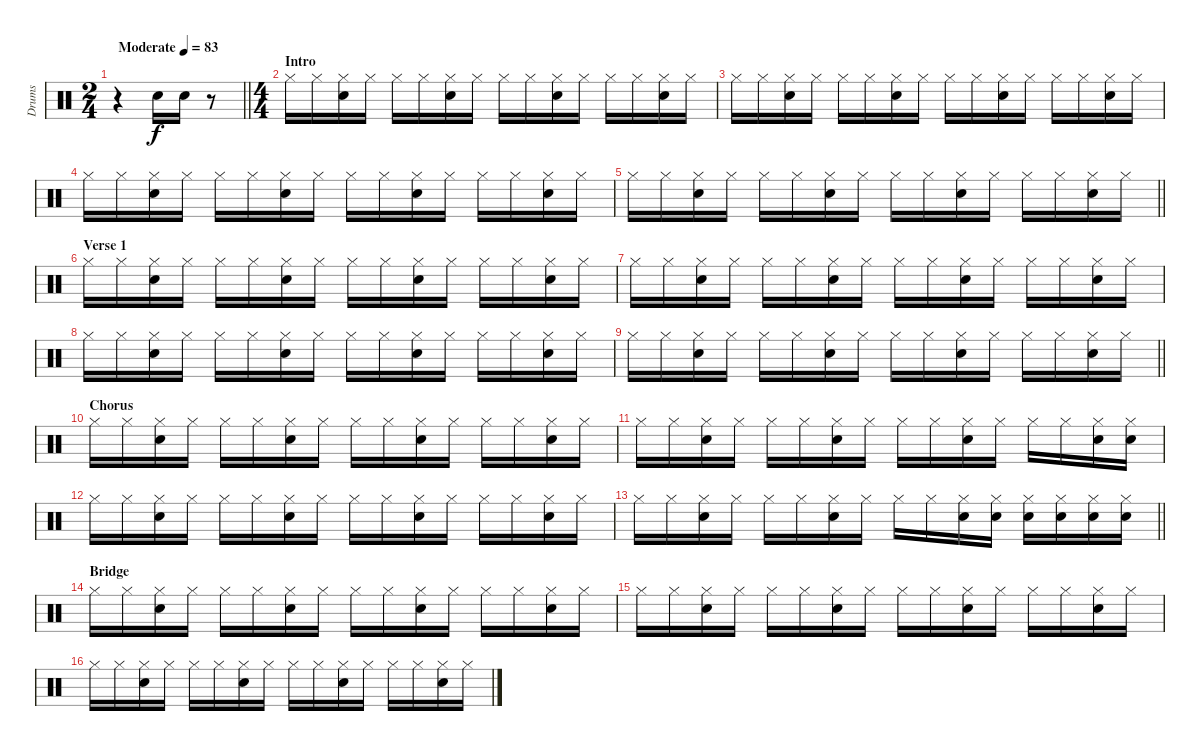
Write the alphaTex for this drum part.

\track ("Drums" "Drums") {instrument percussion}
\staff {score}
\articulation defaults
\ts (2 4)
\tempo (83 "Moderate")
\clef neutral
\barLineRight lightlight
\ks c
r.4{dy f} "Electric Snare (hit)".16 "Electric Snare (hit)".16 r.8 |
\ts (4 4)
\section ("" "Intro")
"Hi-Hat (closed)".16 "Hi-Hat (closed)".16 ("Hi-Hat (closed)" "Electric Snare (hit)").16 "Hi-Hat (closed)".16 "Hi-Hat (closed)".16 "Hi-Hat (closed)".16 ("Hi-Hat (closed)" "Electric Snare (hit)").16 "Hi-Hat (closed)".16 "Hi-Hat (closed)".16 "Hi-Hat (closed)".16 ("Hi-Hat (closed)" "Electric Snare (hit)").16 "Hi-Hat (closed)".16 "Hi-Hat (closed)".16 "Hi-Hat (closed)".16 ("Hi-Hat (closed)" "Electric Snare (hit)").16 "Hi-Hat (closed)".16 |
"Hi-Hat (closed)".16 "Hi-Hat (closed)".16 ("Hi-Hat (closed)" "Electric Snare (hit)").16 "Hi-Hat (closed)".16 "Hi-Hat (closed)".16 "Hi-Hat (closed)".16 ("Hi-Hat (closed)" "Electric Snare (hit)").16 "Hi-Hat (closed)".16 "Hi-Hat (closed)".16 "Hi-Hat (closed)".16 ("Hi-Hat (closed)" "Electric Snare (hit)").16 "Hi-Hat (closed)".16 "Hi-Hat (closed)".16 "Hi-Hat (closed)".16 ("Hi-Hat (closed)" "Electric Snare (hit)").16 "Hi-Hat (closed)".16 |
"Hi-Hat (closed)".16 "Hi-Hat (closed)".16 ("Hi-Hat (closed)" "Electric Snare (hit)").16 "Hi-Hat (closed)".16 "Hi-Hat (closed)".16 "Hi-Hat (closed)".16 ("Hi-Hat (closed)" "Electric Snare (hit)").16 "Hi-Hat (closed)".16 "Hi-Hat (closed)".16 "Hi-Hat (closed)".16 ("Hi-Hat (closed)" "Electric Snare (hit)").16 "Hi-Hat (closed)".16 "Hi-Hat (closed)".16 "Hi-Hat (closed)".16 ("Hi-Hat (closed)" "Electric Snare (hit)").16 "Hi-Hat (closed)".16 |
\barLineRight lightlight "Hi-Hat (closed)".16 "Hi-Hat (closed)".16
("Hi-Hat (closed)" "Electric Snare (hit)").16 "Hi-Hat (closed)".16 "Hi-Hat (closed)".16 "Hi-Hat (closed)".16 ("Hi-Hat (closed)" "Electric Snare (hit)").16 "Hi-Hat (closed)".16 "Hi-Hat (closed)".16 "Hi-Hat (closed)".16 ("Hi-Hat (closed)" "Electric Snare (hit)").16 "Hi-Hat (closed)".16 "Hi-Hat (closed)".16 "Hi-Hat (closed)".16 ("Hi-Hat (closed)" "Electric Snare (hit)").16 "Hi-Hat (closed)".16 |
\section ("" "Verse 1")
"Hi-Hat (closed)".16 "Hi-Hat (closed)".16 ("Hi-Hat (closed)" "Electric Snare (hit)").16 "Hi-Hat (closed)".16 "Hi-Hat (closed)".16 "Hi-Hat (closed)".16 ("Hi-Hat (closed)" "Electric Snare (hit)").16 "Hi-Hat (closed)".16 "Hi-Hat (closed)".16 "Hi-Hat (closed)".16 ("Hi-Hat (closed)" "Electric Snare (hit)").16 "Hi-Hat (closed)".16 "Hi-Hat (closed)".16 "Hi-Hat (closed)".16 ("Hi-Hat (closed)" "Electric Snare (hit)").16 "Hi-Hat (closed)".16 |
"Hi-Hat (closed)".16 "Hi-Hat (closed)".16 ("Hi-Hat (closed)" "Electric Snare (hit)").16 "Hi-Hat (closed)".16 "Hi-Hat (closed)".16 "Hi-Hat (closed)".16 ("Hi-Hat (closed)" "Electric Snare (hit)").16 "Hi-Hat (closed)".16 "Hi-Hat (closed)".16 "Hi-Hat (closed)".16 ("Hi-Hat (closed)" "Electric Snare (hit)").16 "Hi-Hat (closed)".16 "Hi-Hat (closed)".16 "Hi-Hat (closed)".16 ("Hi-Hat (closed)" "Electric Snare (hit)").16 "Hi-Hat (closed)".16 |
"Hi-Hat (closed)".16 "Hi-Hat (closed)".16 ("Hi-Hat (closed)" "Electric Snare (hit)").16 "Hi-Hat (closed)".16 "Hi-Hat (closed)".16 "Hi-Hat (closed)".16 ("Hi-Hat (closed)" "Electric Snare (hit)").16 "Hi-Hat (closed)".16 "Hi-Hat (closed)".16 "Hi-Hat (closed)".16 ("Hi-Hat (closed)" "Electric Snare (hit)").16 "Hi-Hat (closed)".16 "Hi-Hat (closed)".16 "Hi-Hat (closed)".16 ("Hi-Hat (closed)" "Electric Snare (hit)").16 "Hi-Hat (closed)".16 |
\barLineRight lightlight "Hi-Hat (closed)".16 "Hi-Hat (closed)".16
("Hi-Hat (closed)" "Electric Snare (hit)").16 "Hi-Hat (closed)".16 "Hi-Hat (closed)".16 "Hi-Hat (closed)".16 ("Hi-Hat (closed)" "Electric Snare (hit)").16 "Hi-Hat (closed)".16 "Hi-Hat (closed)".16 "Hi-Hat (closed)".16 ("Hi-Hat (closed)" "Electric Snare (hit)").16 "Hi-Hat (closed)".16 "Hi-Hat (closed)".16 "Hi-Hat (closed)".16 ("Hi-Hat (closed)" "Electric Snare (hit)").16 "Hi-Hat (closed)".16 |
\section ("" "Chorus")
"Hi-Hat (closed)".16 "Hi-Hat (closed)".16 ("Hi-Hat (closed)" "Electric Snare (hit)").16 "Hi-Hat (closed)".16 "Hi-Hat (closed)".16 "Hi-Hat (closed)".16 ("Hi-Hat (closed)" "Electric Snare (hit)").16 "Hi-Hat (closed)".16 "Hi-Hat (closed)".16 "Hi-Hat (closed)".16 ("Hi-Hat (closed)" "Electric Snare (hit)").16 "Hi-Hat (closed)".16 "Hi-Hat (closed)".16 "Hi-Hat (closed)".16 ("Hi-Hat (closed)" "Electric Snare (hit)").16 "Hi-Hat (closed)".16 |
"Hi-Hat (closed)".16 "Hi-Hat (closed)".16 ("Hi-Hat (closed)" "Electric Snare (hit)").16 "Hi-Hat (closed)".16 "Hi-Hat (closed)".16 "Hi-Hat (closed)".16 ("Hi-Hat (closed)" "Electric Snare (hit)").16 "Hi-Hat (closed)".16 "Hi-Hat (closed)".16 "Hi-Hat (closed)".16 ("Hi-Hat (closed)" "Electric Snare (hit)").16 "Hi-Hat (closed)".16 "Hi-Hat (closed)".16 "Hi-Hat (closed)".16 ("Hi-Hat (closed)" "Electric Snare (hit)").16 ("Hi-Hat (closed)" "Electric Snare (hit)").16 |
"Hi-Hat (closed)".16 "Hi-Hat (closed)".16 ("Hi-Hat (closed)" "Electric Snare (hit)").16 "Hi-Hat (closed)".16 "Hi-Hat (closed)".16 "Hi-Hat (closed)".16 ("Hi-Hat (closed)" "Electric Snare (hit)").16 "Hi-Hat (closed)".16 "Hi-Hat (closed)".16 "Hi-Hat (closed)".16 ("Hi-Hat (closed)" "Electric Snare (hit)").16 "Hi-Hat (closed)".16 "Hi-Hat (closed)".16 "Hi-Hat (closed)".16 ("Hi-Hat (closed)" "Electric Snare (hit)").16 "Hi-Hat (closed)".16 |
\barLineRight lightlight "Hi-Hat (closed)".16 "Hi-Hat (closed)".16
("Hi-Hat (closed)" "Electric Snare (hit)").16 "Hi-Hat (closed)".16 "Hi-Hat (closed)".16 "Hi-Hat (closed)".16 ("Hi-Hat (closed)" "Electric Snare (hit)").16 "Hi-Hat (closed)".16 "Hi-Hat (closed)".16 "Hi-Hat (closed)".16 ("Hi-Hat (closed)" "Electric Snare (hit)").16 ("Hi-Hat (closed)" "Electric Snare (hit)").16 ("Hi-Hat (closed)" "Electric Snare (hit)").16 ("Hi-Hat (closed)" "Electric Snare (hit)").16 ("Hi-Hat (closed)" "Electric Snare (hit)").16 ("Hi-Hat (closed)" "Electric Snare (hit)").16 |
\section ("" "Bridge")
"Hi-Hat (closed)".16 "Hi-Hat (closed)".16 ("Hi-Hat (closed)" "Electric Snare (hit)").16 "Hi-Hat (closed)".16 "Hi-Hat (closed)".16 "Hi-Hat (closed)".16 ("Hi-Hat (closed)" "Electric Snare (hit)").16 "Hi-Hat (closed)".16 "Hi-Hat (closed)".16 "Hi-Hat (closed)".16 ("Hi-Hat (closed)" "Electric Snare (hit)").16 "Hi-Hat (closed)".16 "Hi-Hat (closed)".16 "Hi-Hat (closed)".16 ("Hi-Hat (closed)" "Electric Snare (hit)").16 "Hi-Hat (closed)".16 |
"Hi-Hat (closed)".16 "Hi-Hat (closed)".16 ("Hi-Hat (closed)" "Electric Snare (hit)").16 "Hi-Hat (closed)".16 "Hi-Hat (closed)".16 "Hi-Hat (closed)".16 ("Hi-Hat (closed)" "Electric Snare (hit)").16 "Hi-Hat (closed)".16 "Hi-Hat (closed)".16 "Hi-Hat (closed)".16 ("Hi-Hat (closed)" "Electric Snare (hit)").16 "Hi-Hat (closed)".16 "Hi-Hat (closed)".16 "Hi-Hat (closed)".16 ("Hi-Hat (closed)" "Electric Snare (hit)").16 "Hi-Hat (closed)".16 |
"Hi-Hat (closed)".16 "Hi-Hat (closed)".16 ("Hi-Hat (closed)" "Electric Snare (hit)").16 "Hi-Hat (closed)".16 "Hi-Hat (closed)".16 "Hi-Hat (closed)".16 ("Hi-Hat (closed)" "Electric Snare (hit)").16 "Hi-Hat (closed)".16 "Hi-Hat (closed)".16 "Hi-Hat (closed)".16 ("Hi-Hat (closed)" "Electric Snare (hit)").16 "Hi-Hat (closed)".16 "Hi-Hat (closed)".16 "Hi-Hat (closed)".16 ("Hi-Hat (closed)" "Electric Snare (hit)").16 "Hi-Hat (closed)".16
